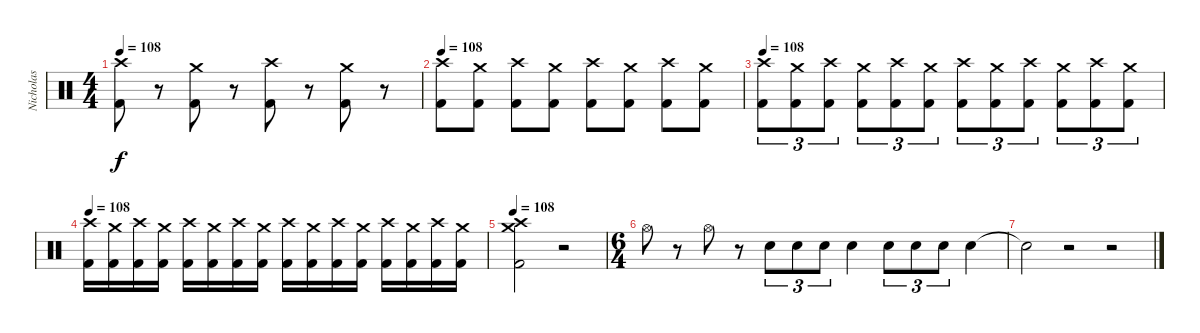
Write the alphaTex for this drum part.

\track ("Nicholas" "Nicholas") {instrument percussion}
\staff {score}
\articulation defaults
\ts (4 4)
\tempo 108
\clef neutral
\ks c
("Crash high (hit)" "Kick (hit) 2").8{dy f} r.8 ("Crash medium (hit)" "Kick (hit) 2").8 r.8 ("Crash high (hit)" "Kick (hit) 2").8 r.8 ("Crash medium (hit)" "Kick (hit) 2").8 r.8 |
\tempo 108
("Crash high (hit)" "Kick (hit) 2").8 ("Crash medium (hit)" "Kick (hit) 2").8 ("Crash high (hit)" "Kick (hit) 2").8 ("Crash medium (hit)" "Kick (hit) 2").8 ("Crash high (hit)" "Kick (hit) 2").8 ("Crash medium (hit)" "Kick (hit) 2").8 ("Crash high (hit)" "Kick (hit) 2").8 ("Crash medium (hit)" "Kick (hit) 2").8 |
\tempo 108
("Crash high (hit)" "Kick (hit) 2").8{tu (3 2)} ("Crash medium (hit)" "Kick (hit) 2").8{tu (3 2)} ("Crash high (hit)" "Kick (hit) 2").8{tu (3 2)} ("Crash medium (hit)" "Kick (hit) 2").8{tu (3 2)} ("Crash high (hit)" "Kick (hit) 2").8{tu (3 2)} ("Crash medium (hit)" "Kick (hit) 2").8{tu (3 2)} ("Crash high (hit)" "Kick (hit) 2").8{tu (3 2)} ("Crash medium (hit)" "Kick (hit) 2").8{tu (3 2)} ("Crash high (hit)" "Kick (hit) 2").8{tu (3 2)} ("Crash medium (hit)" "Kick (hit) 2").8{tu (3 2)} ("Crash high (hit)" "Kick (hit) 2").8{tu (3 2)} ("Crash medium (hit)" "Kick (hit) 2").8{tu (3 2)} |
\tempo 108
("Crash high (hit)" "Kick (hit) 2").16 ("Crash medium (hit)" "Kick (hit) 2").16 ("Crash high (hit)" "Kick (hit) 2").16 ("Crash medium (hit)" "Kick (hit) 2").16 ("Crash high (hit)" "Kick (hit) 2").16 ("Crash medium (hit)" "Kick (hit) 2").16 ("Crash high (hit)" "Kick (hit) 2").16 ("Crash medium (hit)" "Kick (hit) 2").16 ("Crash high (hit)" "Kick (hit) 2").16 ("Crash medium (hit)" "Kick (hit) 2").16 ("Crash high (hit)" "Kick (hit) 2").16 ("Crash medium (hit)" "Kick (hit) 2").16 ("Crash high (hit)" "Kick (hit) 2").16 ("Crash medium (hit)" "Kick (hit) 2").16 ("Crash high (hit)" "Kick (hit) 2").16 ("Crash medium (hit)" "Kick (hit) 2").16 |
\tempo 108
("Crash medium (hit)" "Crash high (hit)" "Kick (hit) 2").2 r.2 |
\ts (6 4)
"Hi-Hat (open)".8 r.8 "Hi-Hat (open)".8 r.8 "Snare (hit) 2".8{tu (3 2)} "Snare (hit) 2".8{tu (3 2)} "Snare (hit) 2".8{tu (3 2)} "Snare (hit) 2".4 "Snare (hit) 2".8{tu (3 2)} "Snare (hit) 2".8{tu (3 2)} "Snare (hit) 2".8{tu (3 2)} "Snare (hit) 2".4 |
"Snare (hit)"{t}.2 r.2 r.2
